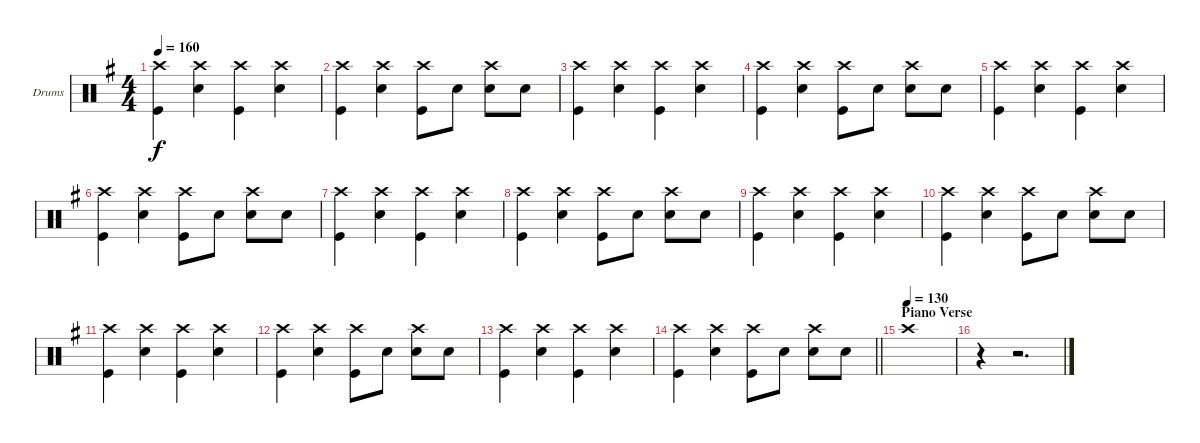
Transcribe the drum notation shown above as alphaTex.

\bracketExtendMode groupsimilarinstruments
\firstSystemTrackNameOrientation horizontal
\otherSystemsTrackNameOrientation horizontal
\track ("Drumkit" "Drums") {instrument percussion}
\staff {score}
\articulation defaults
\ts (4 4)
\tempo 160
\clef neutral
\ks eminor
("Crash high (hit)" "Kick (hit)").4{dy f} ("Crash high (hit)" "Snare (hit) 2").4 ("Crash high (hit)" "Kick (hit)").4 ("Crash high (hit)" "Snare (hit) 2").4 |
("Crash high (hit)" "Kick (hit)").4 ("Crash high (hit)" "Snare (hit) 2").4 ("Crash high (hit)" "Kick (hit)").8 "Snare (hit) 2".8 ("Crash high (hit)" "Snare (hit) 2").8 "Snare (hit) 2".8 |
("Crash high (hit)" "Kick (hit)").4 ("Crash high (hit)" "Snare (hit) 2").4 ("Crash high (hit)" "Kick (hit)").4 ("Crash high (hit)" "Snare (hit) 2").4 |
("Crash high (hit)" "Kick (hit)").4 ("Crash high (hit)" "Snare (hit) 2").4 ("Crash high (hit)" "Kick (hit)").8 "Snare (hit) 2".8 ("Crash high (hit)" "Snare (hit) 2").8 "Snare (hit) 2".8 |
("Crash high (hit)" "Kick (hit)").4 ("Crash high (hit)" "Snare (hit) 2").4 ("Crash high (hit)" "Kick (hit)").4 ("Crash high (hit)" "Snare (hit) 2").4 |
("Crash high (hit)" "Kick (hit)").4 ("Crash high (hit)" "Snare (hit) 2").4 ("Crash high (hit)" "Kick (hit)").8 "Snare (hit) 2".8 ("Crash high (hit)" "Snare (hit) 2").8 "Snare (hit) 2".8 |
("Crash high (hit)" "Kick (hit)").4 ("Crash high (hit)" "Snare (hit) 2").4 ("Crash high (hit)" "Kick (hit)").4 ("Crash high (hit)" "Snare (hit) 2").4 |
("Crash high (hit)" "Kick (hit)").4 ("Crash high (hit)" "Snare (hit) 2").4 ("Crash high (hit)" "Kick (hit)").8 "Snare (hit) 2".8 ("Crash high (hit)" "Snare (hit) 2").8 "Snare (hit) 2".8 |
("Crash high (hit)" "Kick (hit)").4 ("Crash high (hit)" "Snare (hit) 2").4 ("Crash high (hit)" "Kick (hit)").4 ("Crash high (hit)" "Snare (hit) 2").4 |
("Crash high (hit)" "Kick (hit)").4 ("Crash high (hit)" "Snare (hit) 2").4 ("Crash high (hit)" "Kick (hit)").8 "Snare (hit) 2".8 ("Crash high (hit)" "Snare (hit) 2").8 "Snare (hit) 2".8 |
("Crash high (hit)" "Kick (hit)").4 ("Crash high (hit)" "Snare (hit) 2").4 ("Crash high (hit)" "Kick (hit)").4 ("Crash high (hit)" "Snare (hit) 2").4 |
("Crash high (hit)" "Kick (hit)").4 ("Crash high (hit)" "Snare (hit) 2").4 ("Crash high (hit)" "Kick (hit)").8 "Snare (hit) 2".8 ("Crash high (hit)" "Snare (hit) 2").8 "Snare (hit) 2".8 |
("Crash high (hit)" "Kick (hit)").4 ("Crash high (hit)" "Snare (hit) 2").4 ("Crash high (hit)" "Kick (hit)").4 ("Crash high (hit)" "Snare (hit) 2").4 |
\barLineRight lightlight
("Crash high (hit)" "Kick (hit)").4 ("Crash high (hit)" "Snare (hit) 2").4 ("Crash high (hit)" "Kick (hit)").8 "Snare (hit) 2".8 ("Crash high (hit)" "Snare (hit) 2").8 "Snare (hit) 2".8 |
\section ("" "Piano Verse")
\tempo (130)
"Crash high (hit)".1 |
r.4 r.2{d}
